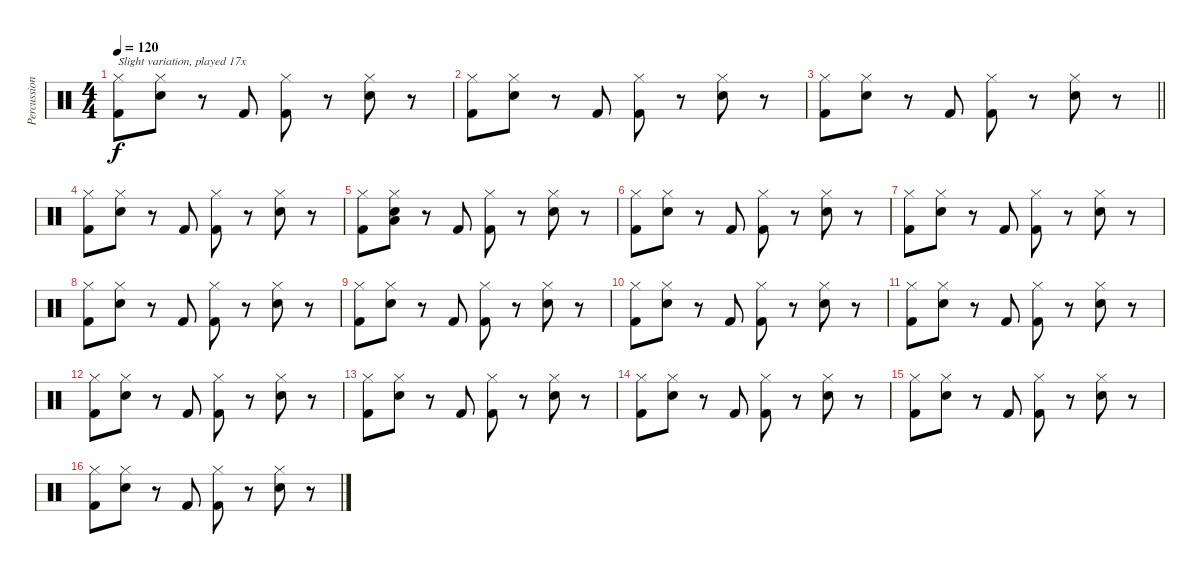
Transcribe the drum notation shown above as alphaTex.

\track ("Percussioni" "Percussion") {instrument percussion}
\staff {score}
\articulation defaults
\ts (4 4)
\tempo 120
\clef neutral
\ks c
("Hi-Hat (closed)" "Kick (hit) 2").8{txt "Slight variation, played 17x" dy f} ("Electric Snare (hit)" "Hi-Hat (closed)").8 r.8 "Kick (hit) 2".8 ("Hi-Hat (closed)" "Kick (hit) 2").8 r.8 ("Electric Snare (hit)" "Hi-Hat (closed)").8 r.8 |
("Hi-Hat (closed)" "Kick (hit) 2").8 ("Electric Snare (hit)" "Hi-Hat (closed)").8 r.8 "Kick (hit) 2".8 ("Hi-Hat (closed)" "Kick (hit) 2").8 r.8 ("Electric Snare (hit)" "Hi-Hat (closed)").8 r.8 |
\barLineRight lightlight
("Hi-Hat (closed)" "Kick (hit) 2").8 ("Electric Snare (hit)" "Hi-Hat (closed)").8 r.8 "Kick (hit) 2".8 ("Hi-Hat (closed)" "Kick (hit) 2").8 r.8 ("Electric Snare (hit)" "Hi-Hat (closed)").8 r.8 |
("Hi-Hat (closed)" "Kick (hit) 2").8 ("Electric Snare (hit)" "Hi-Hat (closed)").8 r.8 "Kick (hit) 2".8 ("Hi-Hat (closed)" "Kick (hit) 2").8 r.8 ("Electric Snare (hit)" "Hi-Hat (closed)").8 r.8 |
("Hi-Hat (closed)" "Kick (hit) 2").8 ("Low Floor Tom (hit)" "Electric Snare (hit)" "Hi-Hat (closed)").8 r.8 "Kick (hit) 2".8 ("Hi-Hat (closed)" "Kick (hit) 2").8 r.8 ("Electric Snare (hit)" "Hi-Hat (closed)").8 r.8 |
("Hi-Hat (closed)" "Kick (hit) 2").8 ("Electric Snare (hit)" "Hi-Hat (closed)").8 r.8 "Kick (hit) 2".8 ("Hi-Hat (closed)" "Kick (hit) 2").8 r.8 ("Electric Snare (hit)" "Hi-Hat (closed)").8 r.8 |
("Hi-Hat (closed)" "Kick (hit) 2").8 ("Electric Snare (hit)" "Hi-Hat (closed)").8 r.8 "Kick (hit) 2".8 ("Hi-Hat (closed)" "Kick (hit) 2").8 r.8 ("Electric Snare (hit)" "Hi-Hat (closed)").8 r.8 |
("Hi-Hat (closed)" "Kick (hit) 2").8 ("Electric Snare (hit)" "Hi-Hat (closed)").8 r.8 "Kick (hit) 2".8 ("Hi-Hat (closed)" "Kick (hit) 2").8 r.8 ("Electric Snare (hit)" "Hi-Hat (closed)").8 r.8 |
("Hi-Hat (closed)" "Kick (hit) 2").8 ("Electric Snare (hit)" "Hi-Hat (closed)").8 r.8 "Kick (hit) 2".8 ("Hi-Hat (closed)" "Kick (hit) 2").8 r.8 ("Electric Snare (hit)" "Hi-Hat (closed)").8 r.8 |
("Hi-Hat (closed)" "Kick (hit) 2").8 ("Electric Snare (hit)" "Hi-Hat (closed)").8 r.8 "Kick (hit) 2".8 ("Hi-Hat (closed)" "Kick (hit) 2").8 r.8 ("Electric Snare (hit)" "Hi-Hat (closed)").8 r.8 |
("Hi-Hat (closed)" "Kick (hit) 2").8 ("Electric Snare (hit)" "Hi-Hat (closed)").8 r.8 "Kick (hit) 2".8 ("Hi-Hat (closed)" "Kick (hit) 2").8 r.8 ("Electric Snare (hit)" "Hi-Hat (closed)").8 r.8 |
("Hi-Hat (closed)" "Kick (hit) 2").8 ("Electric Snare (hit)" "Hi-Hat (closed)").8 r.8 "Kick (hit) 2".8 ("Hi-Hat (closed)" "Kick (hit) 2").8 r.8 ("Electric Snare (hit)" "Hi-Hat (closed)").8 r.8 |
("Hi-Hat (closed)" "Kick (hit) 2").8 ("Electric Snare (hit)" "Hi-Hat (closed)").8 r.8 "Kick (hit) 2".8 ("Hi-Hat (closed)" "Kick (hit) 2").8 r.8 ("Electric Snare (hit)" "Hi-Hat (closed)").8 r.8 |
("Hi-Hat (closed)" "Kick (hit) 2").8 ("Electric Snare (hit)" "Hi-Hat (closed)").8 r.8 "Kick (hit) 2".8 ("Hi-Hat (closed)" "Kick (hit) 2").8 r.8 ("Electric Snare (hit)" "Hi-Hat (closed)").8 r.8 |
("Hi-Hat (closed)" "Kick (hit) 2").8 ("Electric Snare (hit)" "Hi-Hat (closed)").8 r.8 "Kick (hit) 2".8 ("Hi-Hat (closed)" "Kick (hit) 2").8 r.8 ("Electric Snare (hit)" "Hi-Hat (closed)").8 r.8 |
("Hi-Hat (closed)" "Kick (hit) 2").8 ("Electric Snare (hit)" "Hi-Hat (closed)").8 r.8 "Kick (hit) 2".8 ("Hi-Hat (closed)" "Kick (hit) 2").8 r.8 ("Electric Snare (hit)" "Hi-Hat (closed)").8 r.8
